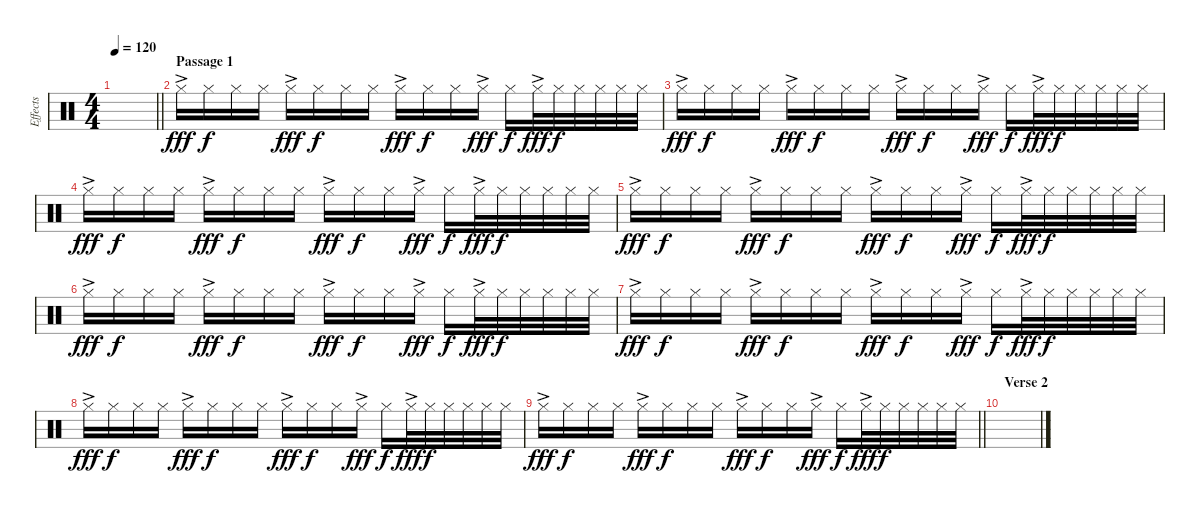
\track ("Effects" "Effects") {instrument percussion}
\staff {score}
\articulation defaults
\ts (4 4)
\tempo 120
\clef neutral
\barLineRight lightlight
\ks c
|
\section ("" "Passage 1")
"Hi-Hat (closed)"{ac}.16{dy fff} "Hi-Hat (closed)".16{dy f} "Hi-Hat (closed)".16 "Hi-Hat (closed)".16 "Hi-Hat (closed)"{ac}.16{dy fff} "Hi-Hat (closed)".16{dy f} "Hi-Hat (closed)".16 "Hi-Hat (closed)".16 "Hi-Hat (closed)"{ac}.16{dy fff} "Hi-Hat (closed)".16{dy f} "Hi-Hat (closed)".16 "Hi-Hat (closed)"{ac}.16{dy fff} "Hi-Hat (closed)".16{dy f} "Hi-Hat (closed)"{ac}.32{dy fff} "Hi-Hat (closed)".32{dy f} "Hi-Hat (closed)".32 "Hi-Hat (closed)".32 "Hi-Hat (closed)".32 "Hi-Hat (closed)".32 |
"Hi-Hat (closed)"{ac}.16{dy fff} "Hi-Hat (closed)".16{dy f} "Hi-Hat (closed)".16 "Hi-Hat (closed)".16 "Hi-Hat (closed)"{ac}.16{dy fff} "Hi-Hat (closed)".16{dy f} "Hi-Hat (closed)".16 "Hi-Hat (closed)".16 "Hi-Hat (closed)"{ac}.16{dy fff} "Hi-Hat (closed)".16{dy f} "Hi-Hat (closed)".16 "Hi-Hat (closed)"{ac}.16{dy fff} "Hi-Hat (closed)".16{dy f} "Hi-Hat (closed)"{ac}.32{dy fff} "Hi-Hat (closed)".32{dy f} "Hi-Hat (closed)".32 "Hi-Hat (closed)".32 "Hi-Hat (closed)".32 "Hi-Hat (closed)".32 |
"Hi-Hat (closed)"{ac}.16{dy fff} "Hi-Hat (closed)".16{dy f} "Hi-Hat (closed)".16 "Hi-Hat (closed)".16 "Hi-Hat (closed)"{ac}.16{dy fff} "Hi-Hat (closed)".16{dy f} "Hi-Hat (closed)".16 "Hi-Hat (closed)".16 "Hi-Hat (closed)"{ac}.16{dy fff} "Hi-Hat (closed)".16{dy f} "Hi-Hat (closed)".16 "Hi-Hat (closed)"{ac}.16{dy fff} "Hi-Hat (closed)".16{dy f} "Hi-Hat (closed)"{ac}.32{dy fff} "Hi-Hat (closed)".32{dy f} "Hi-Hat (closed)".32 "Hi-Hat (closed)".32 "Hi-Hat (closed)".32 "Hi-Hat (closed)".32 |
"Hi-Hat (closed)"{ac}.16{dy fff} "Hi-Hat (closed)".16{dy f} "Hi-Hat (closed)".16 "Hi-Hat (closed)".16 "Hi-Hat (closed)"{ac}.16{dy fff} "Hi-Hat (closed)".16{dy f} "Hi-Hat (closed)".16 "Hi-Hat (closed)".16 "Hi-Hat (closed)"{ac}.16{dy fff} "Hi-Hat (closed)".16{dy f} "Hi-Hat (closed)".16 "Hi-Hat (closed)"{ac}.16{dy fff} "Hi-Hat (closed)".16{dy f} "Hi-Hat (closed)"{ac}.32{dy fff} "Hi-Hat (closed)".32{dy f} "Hi-Hat (closed)".32 "Hi-Hat (closed)".32 "Hi-Hat (closed)".32 "Hi-Hat (closed)".32 |
"Hi-Hat (closed)"{ac}.16{dy fff} "Hi-Hat (closed)".16{dy f} "Hi-Hat (closed)".16 "Hi-Hat (closed)".16 "Hi-Hat (closed)"{ac}.16{dy fff} "Hi-Hat (closed)".16{dy f} "Hi-Hat (closed)".16 "Hi-Hat (closed)".16 "Hi-Hat (closed)"{ac}.16{dy fff} "Hi-Hat (closed)".16{dy f} "Hi-Hat (closed)".16 "Hi-Hat (closed)"{ac}.16{dy fff} "Hi-Hat (closed)".16{dy f} "Hi-Hat (closed)"{ac}.32{dy fff} "Hi-Hat (closed)".32{dy f} "Hi-Hat (closed)".32 "Hi-Hat (closed)".32 "Hi-Hat (closed)".32 "Hi-Hat (closed)".32 |
"Hi-Hat (closed)"{ac}.16{dy fff} "Hi-Hat (closed)".16{dy f} "Hi-Hat (closed)".16 "Hi-Hat (closed)".16 "Hi-Hat (closed)"{ac}.16{dy fff} "Hi-Hat (closed)".16{dy f} "Hi-Hat (closed)".16 "Hi-Hat (closed)".16 "Hi-Hat (closed)"{ac}.16{dy fff} "Hi-Hat (closed)".16{dy f} "Hi-Hat (closed)".16 "Hi-Hat (closed)"{ac}.16{dy fff} "Hi-Hat (closed)".16{dy f} "Hi-Hat (closed)"{ac}.32{dy fff} "Hi-Hat (closed)".32{dy f} "Hi-Hat (closed)".32 "Hi-Hat (closed)".32 "Hi-Hat (closed)".32 "Hi-Hat (closed)".32 |
"Hi-Hat (closed)"{ac}.16{dy fff} "Hi-Hat (closed)".16{dy f} "Hi-Hat (closed)".16 "Hi-Hat (closed)".16 "Hi-Hat (closed)"{ac}.16{dy fff} "Hi-Hat (closed)".16{dy f} "Hi-Hat (closed)".16 "Hi-Hat (closed)".16 "Hi-Hat (closed)"{ac}.16{dy fff} "Hi-Hat (closed)".16{dy f} "Hi-Hat (closed)".16 "Hi-Hat (closed)"{ac}.16{dy fff} "Hi-Hat (closed)".16{dy f} "Hi-Hat (closed)"{ac}.32{dy fff} "Hi-Hat (closed)".32{dy f} "Hi-Hat (closed)".32 "Hi-Hat (closed)".32 "Hi-Hat (closed)".32 "Hi-Hat (closed)".32 |
\barLineRight lightlight "Hi-Hat (closed)"{ac}.16{dy fff} "Hi-Hat (closed)".16{dy f} "Hi-Hat (closed)".16 "Hi-Hat (closed)".16 "Hi-Hat (closed)"{ac}.16{dy fff} "Hi-Hat (closed)".16{dy f} "Hi-Hat (closed)".16 "Hi-Hat (closed)".16 "Hi-Hat (closed)"{ac}.16{dy fff} "Hi-Hat (closed)".16{dy f} "Hi-Hat (closed)".16 "Hi-Hat (closed)"{ac}.16{dy fff} "Hi-Hat (closed)".16{dy f} "Hi-Hat (closed)"{ac}.32{dy fff} "Hi-Hat (closed)".32{dy f} "Hi-Hat (closed)".32 "Hi-Hat (closed)".32 "Hi-Hat (closed)".32 "Hi-Hat (closed)".32
|
\section ("" "Verse 2")
